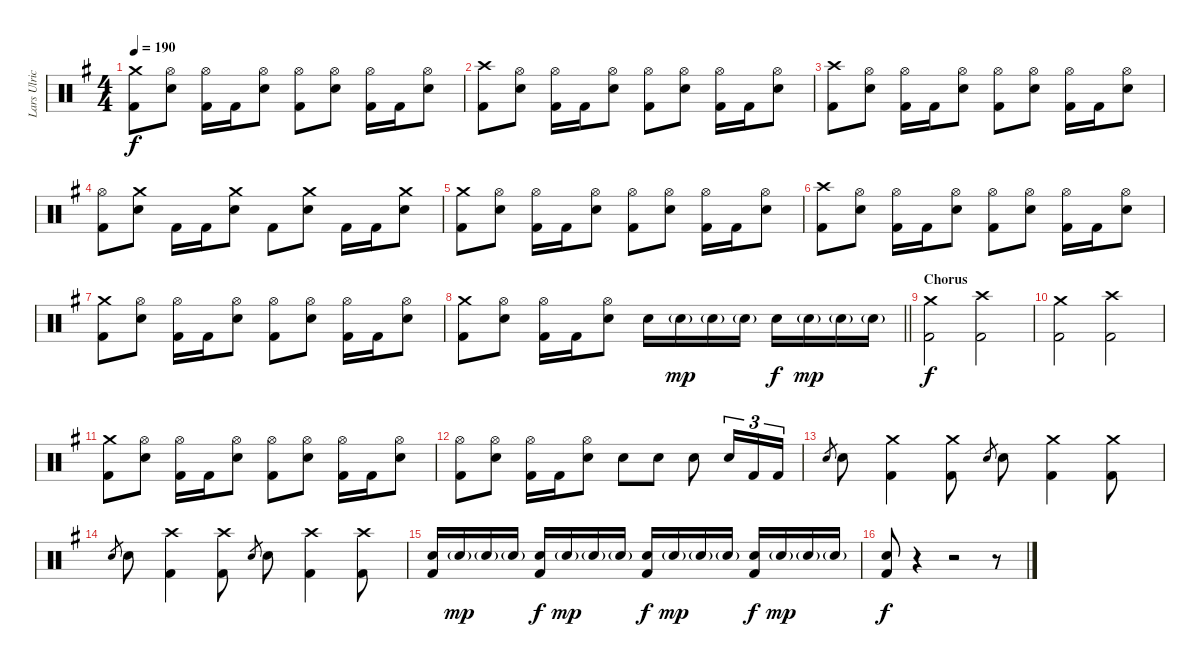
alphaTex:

\track ("Lars Ulrich - Drums" "Lars Ulric") {instrument percussion}
\staff {score}
\articulation defaults
\ts (4 4)
\tempo 190
\clef neutral
\ks eminor
("Crash medium (hit)" "Kick (hit) 2").8{dy f} ("Hi-Hat (open)" "Snare (hit) 2").8 ("Hi-Hat (open)" "Kick (hit) 2").16 "Kick (hit) 2".16 ("Hi-Hat (open)" "Snare (hit) 2").8 ("Hi-Hat (open)" "Kick (hit) 2").8 ("Hi-Hat (open)" "Snare (hit) 2").8 ("Hi-Hat (open)" "Kick (hit) 2").16 "Kick (hit) 2".16 ("Hi-Hat (open)" "Snare (hit) 2").8 |
("Crash high (hit)" "Kick (hit) 2").8 ("Hi-Hat (open)" "Snare (hit) 2").8 ("Hi-Hat (open)" "Kick (hit) 2").16 "Kick (hit) 2".16 ("Hi-Hat (open)" "Snare (hit) 2").8 ("Hi-Hat (open)" "Kick (hit) 2").8 ("Hi-Hat (open)" "Snare (hit) 2").8 ("Hi-Hat (open)" "Kick (hit) 2").16 "Kick (hit) 2".16 ("Hi-Hat (open)" "Snare (hit) 2").8 |
("Crash high (hit)" "Kick (hit) 2").8 ("Hi-Hat (open)" "Snare (hit) 2").8 ("Hi-Hat (open)" "Kick (hit) 2").16 "Kick (hit) 2".16 ("Hi-Hat (open)" "Snare (hit) 2").8 ("Hi-Hat (open)" "Kick (hit) 2").8 ("Hi-Hat (open)" "Snare (hit) 2").8 ("Hi-Hat (open)" "Kick (hit) 2").16 "Kick (hit) 2".16 ("Hi-Hat (open)" "Snare (hit) 2").8 |
("Hi-Hat (open)" "Kick (hit) 2").8 ("Crash medium (hit)" "Snare (hit) 2").8 "Kick (hit) 2".16 "Kick (hit) 2".16 ("Crash medium (hit)" "Snare (hit) 2").8 "Kick (hit) 2".8 ("Crash medium (hit)" "Snare (hit) 2").8 "Kick (hit) 2".16 "Kick (hit) 2".16 ("Crash medium (hit)" "Snare (hit) 2").8 |
("Crash medium (hit)" "Kick (hit) 2").8 ("Hi-Hat (open)" "Snare (hit) 2").8 ("Hi-Hat (open)" "Kick (hit) 2").16 "Kick (hit) 2".16 ("Hi-Hat (open)" "Snare (hit) 2").8 ("Hi-Hat (open)" "Kick (hit) 2").8 ("Hi-Hat (open)" "Snare (hit) 2").8 ("Hi-Hat (open)" "Kick (hit) 2").16 "Kick (hit) 2".16 ("Hi-Hat (open)" "Snare (hit) 2").8 |
("Crash high (hit)" "Kick (hit) 2").8 ("Hi-Hat (open)" "Snare (hit) 2").8 ("Hi-Hat (open)" "Kick (hit) 2").16 "Kick (hit) 2".16 ("Hi-Hat (open)" "Snare (hit) 2").8 ("Hi-Hat (open)" "Kick (hit) 2").8 ("Hi-Hat (open)" "Snare (hit) 2").8 ("Hi-Hat (open)" "Kick (hit) 2").16 "Kick (hit) 2".16 ("Hi-Hat (open)" "Snare (hit) 2").8 |
("Crash medium (hit)" "Kick (hit) 2").8 ("Hi-Hat (open)" "Snare (hit) 2").8 ("Hi-Hat (open)" "Kick (hit) 2").16 "Kick (hit) 2".16 ("Hi-Hat (open)" "Snare (hit) 2").8 ("Hi-Hat (open)" "Kick (hit) 2").8 ("Hi-Hat (open)" "Snare (hit) 2").8 ("Hi-Hat (open)" "Kick (hit) 2").16 "Kick (hit) 2".16 ("Hi-Hat (open)" "Snare (hit) 2").8 |
\barLineRight lightlight
("Crash medium (hit)" "Kick (hit) 2").8 ("Hi-Hat (open)" "Snare (hit) 2").8 ("Hi-Hat (open)" "Kick (hit) 2").16 "Kick (hit) 2".16 ("Hi-Hat (open)" "Snare (hit) 2").8 "Snare (hit) 2".16 "Snare (hit) 2"{g}.16{dy mp} "Snare (hit) 2"{g}.16 "Snare (hit) 2"{g}.16 "Snare (hit) 2".16{dy f} "Snare (hit) 2"{g}.16{dy mp} "Snare (hit) 2"{g}.16 "Snare (hit) 2"{g}.16 |
\section ("" "Chorus")
("Crash medium (hit)" "Kick (hit) 2").2{dy f} ("Crash high (hit)" "Kick (hit) 2").2 |
("Crash medium (hit)" "Kick (hit) 2").2 ("Crash high (hit)" "Kick (hit) 2").2 |
("Crash medium (hit)" "Kick (hit) 2").8 ("Hi-Hat (open)" "Snare (hit) 2").8 ("Hi-Hat (open)" "Kick (hit) 2").16 "Kick (hit) 2".16 ("Hi-Hat (open)" "Snare (hit) 2").8 ("Hi-Hat (open)" "Kick (hit) 2").8 ("Hi-Hat (open)" "Snare (hit) 2").8 ("Hi-Hat (open)" "Kick (hit) 2").16 "Kick (hit) 2".16 ("Hi-Hat (open)" "Snare (hit) 2").8 |
("Hi-Hat (open)" "Kick (hit) 2").8 ("Hi-Hat (open)" "Snare (hit) 2").8 ("Hi-Hat (open)" "Kick (hit) 2").16 "Kick (hit) 2".16 ("Hi-Hat (open)" "Snare (hit) 2").8 "Snare (hit) 2".8 "Snare (hit) 2".8 "Snare (hit) 2".8 "Snare (hit) 2".16{tu (3 2)} "Kick (hit) 2".16{tu (3 2)} "Kick (hit) 2".16{tu (3 2)} |
"Electric Snare (hit)".8{gr} "Snare (hit) 2".8 ("Crash medium (hit)" "Kick (hit) 2").4 ("Crash medium (hit)" "Kick (hit) 2").8 "Electric Snare (hit)".8{gr} "Snare (hit) 2".8 ("Crash medium (hit)" "Kick (hit) 2").4 ("Crash medium (hit)" "Kick (hit) 2").8 |
"Electric Snare (hit)".8{gr} "Snare (hit) 2".8 ("Crash high (hit)" "Kick (hit) 2").4 ("Crash high (hit)" "Kick (hit) 2").8 "Electric Snare (hit)".8{gr} "Snare (hit) 2".8 ("Crash high (hit)" "Kick (hit) 2").4 ("Crash high (hit)" "Kick (hit) 2").8 |
("Snare (hit) 2" "Kick (hit) 2").16 "Snare (hit) 2"{g}.16{dy mp} "Snare (hit) 2"{g}.16 "Snare (hit) 2"{g}.16 ("Snare (hit) 2" "Kick (hit) 2").16{dy f} "Snare (hit) 2"{g}.16{dy mp} "Snare (hit) 2"{g}.16 "Snare (hit) 2"{g}.16 ("Snare (hit) 2" "Kick (hit) 2").16{dy f} "Snare (hit) 2"{g}.16{dy mp} "Snare (hit) 2"{g}.16 "Snare (hit) 2"{g}.16 ("Snare (hit) 2" "Kick (hit) 2").16{dy f} "Snare (hit) 2"{g}.16{dy mp} "Snare (hit) 2"{g}.16 "Snare (hit) 2"{g}.16 |
("Snare (hit) 2" "Kick (hit) 2").8{dy f} r.4 r.2 r.8
